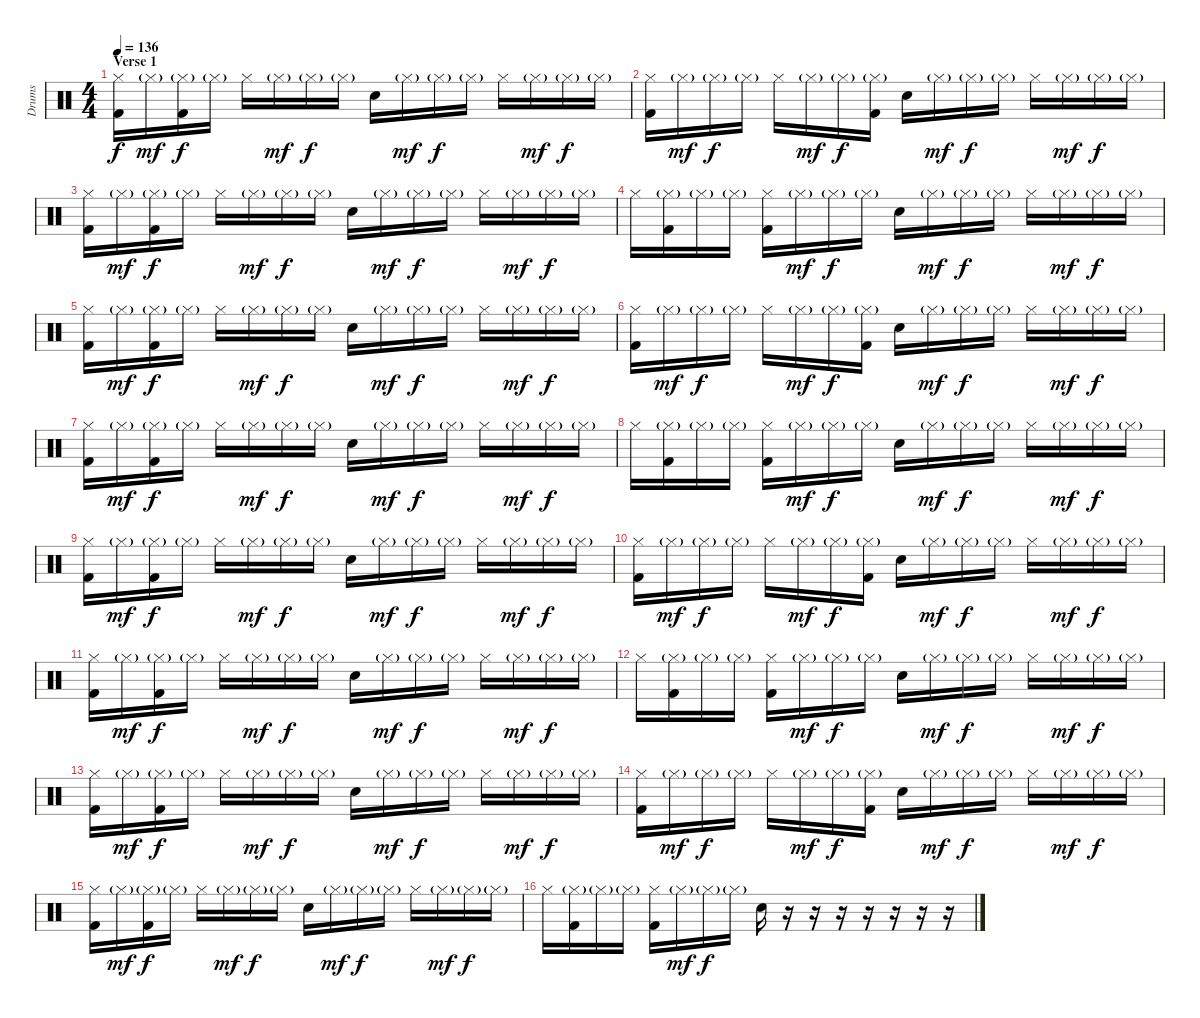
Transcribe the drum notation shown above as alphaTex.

\track ("Drums" "Drums") {instrument percussion}
\staff {score}
\articulation defaults
\ts (4 4)
\section ("" "Verse 1")
\tempo 136
\clef neutral
\ks c
("Hi-Hat (closed)" "Kick (hit) 2").16{dy f} "Hi-Hat (closed)"{g}.16{dy mf} ("Hi-Hat (closed)"{g} "Kick (hit) 2").16{dy f} "Hi-Hat (closed)"{g}.16 "Hi-Hat (closed)".16 "Hi-Hat (closed)"{g}.16{dy mf} "Hi-Hat (closed)"{g}.16{dy f} "Hi-Hat (closed)"{g}.16 "Electric Snare (hit)".16 "Hi-Hat (closed)"{g}.16{dy mf} "Hi-Hat (closed)"{g}.16{dy f} "Hi-Hat (closed)"{g}.16 "Hi-Hat (closed)".16 "Hi-Hat (closed)"{g}.16{dy mf} "Hi-Hat (closed)"{g}.16{dy f} "Hi-Hat (closed)"{g}.16 |
("Hi-Hat (closed)" "Kick (hit) 2").16 "Hi-Hat (closed)"{g}.16{dy mf} "Hi-Hat (closed)"{g}.16{dy f} "Hi-Hat (closed)"{g}.16 "Hi-Hat (closed)".16 "Hi-Hat (closed)"{g}.16{dy mf} "Hi-Hat (closed)"{g}.16{dy f} ("Hi-Hat (closed)"{g} "Kick (hit) 2").16 "Electric Snare (hit)".16 "Hi-Hat (closed)"{g}.16{dy mf} "Hi-Hat (closed)"{g}.16{dy f} "Hi-Hat (closed)"{g}.16 "Hi-Hat (closed)".16 "Hi-Hat (closed)"{g}.16{dy mf} "Hi-Hat (closed)"{g}.16{dy f} "Hi-Hat (closed)"{g}.16 |
("Hi-Hat (closed)" "Kick (hit) 2").16 "Hi-Hat (closed)"{g}.16{dy mf} ("Hi-Hat (closed)"{g} "Kick (hit) 2").16{dy f} "Hi-Hat (closed)"{g}.16 "Hi-Hat (closed)".16 "Hi-Hat (closed)"{g}.16{dy mf} "Hi-Hat (closed)"{g}.16{dy f} "Hi-Hat (closed)"{g}.16 "Electric Snare (hit)".16 "Hi-Hat (closed)"{g}.16{dy mf} "Hi-Hat (closed)"{g}.16{dy f} "Hi-Hat (closed)"{g}.16 "Hi-Hat (closed)".16 "Hi-Hat (closed)"{g}.16{dy mf} "Hi-Hat (closed)"{g}.16{dy f} "Hi-Hat (closed)"{g}.16 |
"Hi-Hat (closed)".16 ("Hi-Hat (closed)"{g} "Kick (hit) 2").16 "Hi-Hat (closed)"{g}.16 "Hi-Hat (closed)"{g}.16 ("Hi-Hat (closed)" "Kick (hit) 2").16 "Hi-Hat (closed)"{g}.16{dy mf} "Hi-Hat (closed)"{g}.16{dy f} "Hi-Hat (closed)"{g}.16 "Electric Snare (hit)".16 "Hi-Hat (closed)"{g}.16{dy mf} "Hi-Hat (closed)"{g}.16{dy f} "Hi-Hat (closed)"{g}.16 "Hi-Hat (closed)".16 "Hi-Hat (closed)"{g}.16{dy mf} "Hi-Hat (closed)"{g}.16{dy f} "Hi-Hat (closed)"{g}.16 |
("Hi-Hat (closed)" "Kick (hit) 2").16 "Hi-Hat (closed)"{g}.16{dy mf} ("Hi-Hat (closed)"{g} "Kick (hit) 2").16{dy f} "Hi-Hat (closed)"{g}.16 "Hi-Hat (closed)".16 "Hi-Hat (closed)"{g}.16{dy mf} "Hi-Hat (closed)"{g}.16{dy f} "Hi-Hat (closed)"{g}.16 "Electric Snare (hit)".16 "Hi-Hat (closed)"{g}.16{dy mf} "Hi-Hat (closed)"{g}.16{dy f} "Hi-Hat (closed)"{g}.16 "Hi-Hat (closed)".16 "Hi-Hat (closed)"{g}.16{dy mf} "Hi-Hat (closed)"{g}.16{dy f} "Hi-Hat (closed)"{g}.16 |
("Hi-Hat (closed)" "Kick (hit) 2").16 "Hi-Hat (closed)"{g}.16{dy mf} "Hi-Hat (closed)"{g}.16{dy f} "Hi-Hat (closed)"{g}.16 "Hi-Hat (closed)".16 "Hi-Hat (closed)"{g}.16{dy mf} "Hi-Hat (closed)"{g}.16{dy f} ("Hi-Hat (closed)"{g} "Kick (hit) 2").16 "Electric Snare (hit)".16 "Hi-Hat (closed)"{g}.16{dy mf} "Hi-Hat (closed)"{g}.16{dy f} "Hi-Hat (closed)"{g}.16 "Hi-Hat (closed)".16 "Hi-Hat (closed)"{g}.16{dy mf} "Hi-Hat (closed)"{g}.16{dy f} "Hi-Hat (closed)"{g}.16 |
("Hi-Hat (closed)" "Kick (hit) 2").16 "Hi-Hat (closed)"{g}.16{dy mf} ("Hi-Hat (closed)"{g} "Kick (hit) 2").16{dy f} "Hi-Hat (closed)"{g}.16 "Hi-Hat (closed)".16 "Hi-Hat (closed)"{g}.16{dy mf} "Hi-Hat (closed)"{g}.16{dy f} "Hi-Hat (closed)"{g}.16 "Electric Snare (hit)".16 "Hi-Hat (closed)"{g}.16{dy mf} "Hi-Hat (closed)"{g}.16{dy f} "Hi-Hat (closed)"{g}.16 "Hi-Hat (closed)".16 "Hi-Hat (closed)"{g}.16{dy mf} "Hi-Hat (closed)"{g}.16{dy f} "Hi-Hat (closed)"{g}.16 |
"Hi-Hat (closed)".16 ("Hi-Hat (closed)"{g} "Kick (hit) 2").16 "Hi-Hat (closed)"{g}.16 "Hi-Hat (closed)"{g}.16 ("Hi-Hat (closed)" "Kick (hit) 2").16 "Hi-Hat (closed)"{g}.16{dy mf} "Hi-Hat (closed)"{g}.16{dy f} "Hi-Hat (closed)"{g}.16 "Electric Snare (hit)".16 "Hi-Hat (closed)"{g}.16{dy mf} "Hi-Hat (closed)"{g}.16{dy f} "Hi-Hat (closed)"{g}.16 "Hi-Hat (closed)".16 "Hi-Hat (closed)"{g}.16{dy mf} "Hi-Hat (closed)"{g}.16{dy f} "Hi-Hat (closed)"{g}.16 |
("Hi-Hat (closed)" "Kick (hit) 2").16 "Hi-Hat (closed)"{g}.16{dy mf} ("Hi-Hat (closed)"{g} "Kick (hit) 2").16{dy f} "Hi-Hat (closed)"{g}.16 "Hi-Hat (closed)".16 "Hi-Hat (closed)"{g}.16{dy mf} "Hi-Hat (closed)"{g}.16{dy f} "Hi-Hat (closed)"{g}.16 "Electric Snare (hit)".16 "Hi-Hat (closed)"{g}.16{dy mf} "Hi-Hat (closed)"{g}.16{dy f} "Hi-Hat (closed)"{g}.16 "Hi-Hat (closed)".16 "Hi-Hat (closed)"{g}.16{dy mf} "Hi-Hat (closed)"{g}.16{dy f} "Hi-Hat (closed)"{g}.16 |
("Hi-Hat (closed)" "Kick (hit) 2").16 "Hi-Hat (closed)"{g}.16{dy mf} "Hi-Hat (closed)"{g}.16{dy f} "Hi-Hat (closed)"{g}.16 "Hi-Hat (closed)".16 "Hi-Hat (closed)"{g}.16{dy mf} "Hi-Hat (closed)"{g}.16{dy f} ("Hi-Hat (closed)"{g} "Kick (hit) 2").16 "Electric Snare (hit)".16 "Hi-Hat (closed)"{g}.16{dy mf} "Hi-Hat (closed)"{g}.16{dy f} "Hi-Hat (closed)"{g}.16 "Hi-Hat (closed)".16 "Hi-Hat (closed)"{g}.16{dy mf} "Hi-Hat (closed)"{g}.16{dy f} "Hi-Hat (closed)"{g}.16 |
("Hi-Hat (closed)" "Kick (hit) 2").16 "Hi-Hat (closed)"{g}.16{dy mf} ("Hi-Hat (closed)"{g} "Kick (hit) 2").16{dy f} "Hi-Hat (closed)"{g}.16 "Hi-Hat (closed)".16 "Hi-Hat (closed)"{g}.16{dy mf} "Hi-Hat (closed)"{g}.16{dy f} "Hi-Hat (closed)"{g}.16 "Electric Snare (hit)".16 "Hi-Hat (closed)"{g}.16{dy mf} "Hi-Hat (closed)"{g}.16{dy f} "Hi-Hat (closed)"{g}.16 "Hi-Hat (closed)".16 "Hi-Hat (closed)"{g}.16{dy mf} "Hi-Hat (closed)"{g}.16{dy f} "Hi-Hat (closed)"{g}.16 |
"Hi-Hat (closed)".16 ("Hi-Hat (closed)"{g} "Kick (hit) 2").16 "Hi-Hat (closed)"{g}.16 "Hi-Hat (closed)"{g}.16 ("Hi-Hat (closed)" "Kick (hit) 2").16 "Hi-Hat (closed)"{g}.16{dy mf} "Hi-Hat (closed)"{g}.16{dy f} "Hi-Hat (closed)"{g}.16 "Electric Snare (hit)".16 "Hi-Hat (closed)"{g}.16{dy mf} "Hi-Hat (closed)"{g}.16{dy f} "Hi-Hat (closed)"{g}.16 "Hi-Hat (closed)".16 "Hi-Hat (closed)"{g}.16{dy mf} "Hi-Hat (closed)"{g}.16{dy f} "Hi-Hat (closed)"{g}.16 |
("Hi-Hat (closed)" "Kick (hit) 2").16 "Hi-Hat (closed)"{g}.16{dy mf} ("Hi-Hat (closed)"{g} "Kick (hit) 2").16{dy f} "Hi-Hat (closed)"{g}.16 "Hi-Hat (closed)".16 "Hi-Hat (closed)"{g}.16{dy mf} "Hi-Hat (closed)"{g}.16{dy f} "Hi-Hat (closed)"{g}.16 "Electric Snare (hit)".16 "Hi-Hat (closed)"{g}.16{dy mf} "Hi-Hat (closed)"{g}.16{dy f} "Hi-Hat (closed)"{g}.16 "Hi-Hat (closed)".16 "Hi-Hat (closed)"{g}.16{dy mf} "Hi-Hat (closed)"{g}.16{dy f} "Hi-Hat (closed)"{g}.16 |
("Hi-Hat (closed)" "Kick (hit) 2").16 "Hi-Hat (closed)"{g}.16{dy mf} "Hi-Hat (closed)"{g}.16{dy f} "Hi-Hat (closed)"{g}.16 "Hi-Hat (closed)".16 "Hi-Hat (closed)"{g}.16{dy mf} "Hi-Hat (closed)"{g}.16{dy f} ("Hi-Hat (closed)"{g} "Kick (hit) 2").16 "Electric Snare (hit)".16 "Hi-Hat (closed)"{g}.16{dy mf} "Hi-Hat (closed)"{g}.16{dy f} "Hi-Hat (closed)"{g}.16 "Hi-Hat (closed)".16 "Hi-Hat (closed)"{g}.16{dy mf} "Hi-Hat (closed)"{g}.16{dy f} "Hi-Hat (closed)"{g}.16 |
("Hi-Hat (closed)" "Kick (hit) 2").16 "Hi-Hat (closed)"{g}.16{dy mf} ("Hi-Hat (closed)"{g} "Kick (hit) 2").16{dy f} "Hi-Hat (closed)"{g}.16 "Hi-Hat (closed)".16 "Hi-Hat (closed)"{g}.16{dy mf} "Hi-Hat (closed)"{g}.16{dy f} "Hi-Hat (closed)"{g}.16 "Electric Snare (hit)".16 "Hi-Hat (closed)"{g}.16{dy mf} "Hi-Hat (closed)"{g}.16{dy f} "Hi-Hat (closed)"{g}.16 "Hi-Hat (closed)".16 "Hi-Hat (closed)"{g}.16{dy mf} "Hi-Hat (closed)"{g}.16{dy f} "Hi-Hat (closed)"{g}.16 |
"Hi-Hat (closed)".16 ("Hi-Hat (closed)"{g} "Kick (hit) 2").16 "Hi-Hat (closed)"{g}.16 "Hi-Hat (closed)"{g}.16 ("Hi-Hat (closed)" "Kick (hit) 2").16 "Hi-Hat (closed)"{g}.16{dy mf} "Hi-Hat (closed)"{g}.16{dy f} "Hi-Hat (closed)"{g}.16 "Electric Snare (hit)".16 r.16 r.16 r.16 r.16 r.16 r.16 r.16
